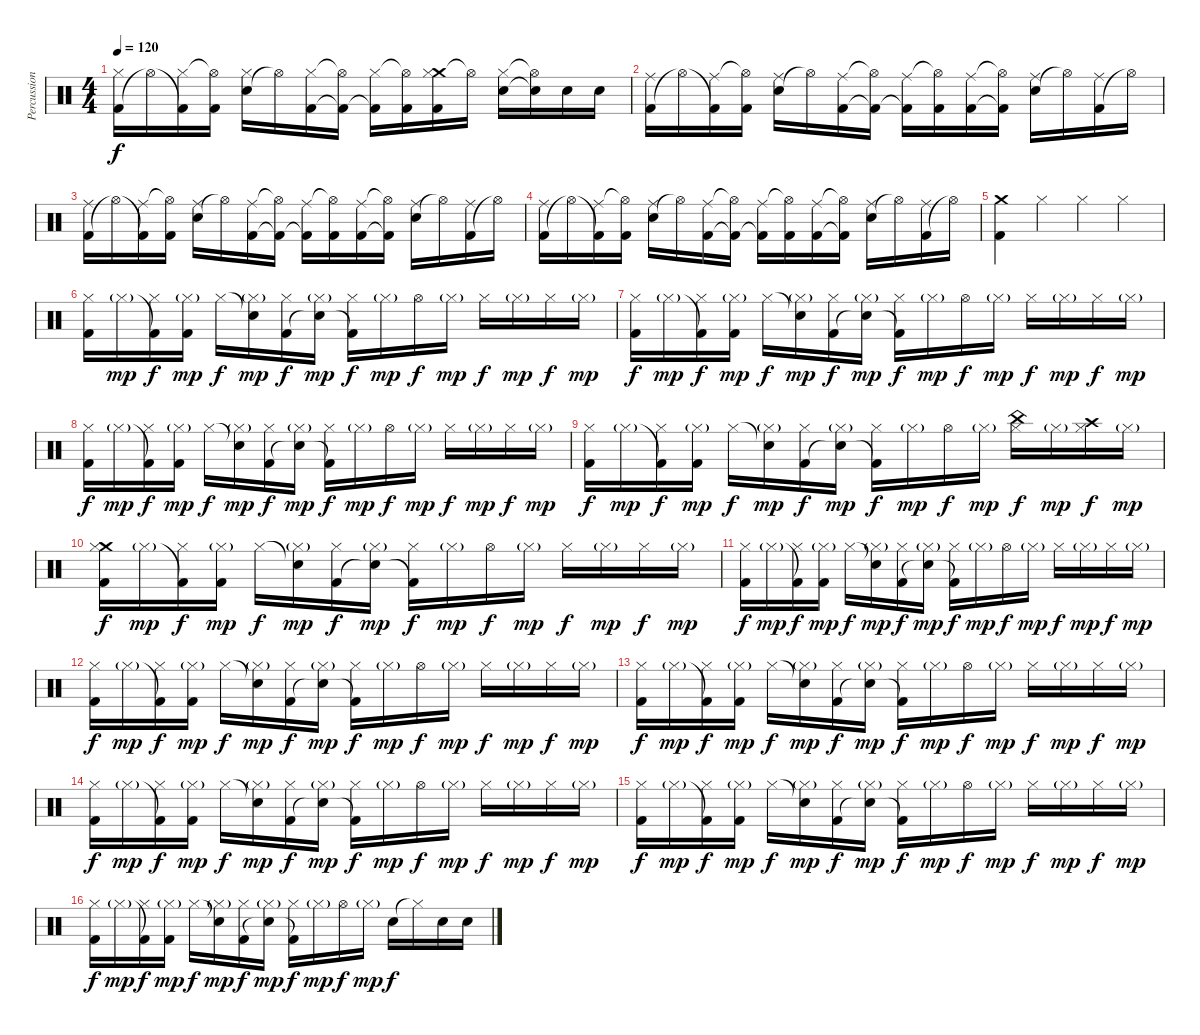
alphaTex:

\track ("Percussions" "Percussion") {instrument percussion}
\staff {score}
\articulation defaults
\ts (4 4)
\tempo 120
\clef neutral
\ks c
("Kick (hit) 2" "Hi-Hat (closed)").16{dy f} "Hi-Hat (open)"{t}.16 ("Kick (hit) 2"{t} "Hi-Hat (closed)").16 ("Kick (hit) 2" "Hi-Hat (open)"{t}).16 ("Electric Snare (hit)" "Hi-Hat (closed)").16 "Hi-Hat (open)"{t}.16 ("Kick (hit) 2" "Hi-Hat (closed)").16 ("Kick (hit) 2"{t} "Hi-Hat (open)"{t}).16 ("Kick (hit) 2"{t} "Hi-Hat (closed)").16 ("Kick (hit) 2" "Hi-Hat (open)"{t}).16 ("Crash medium (hit)" "Kick (hit) 2" "Hi-Hat (closed)").16 "Hi-Hat (open)"{t}.16 ("Electric Snare (hit)" "Hi-Hat (closed)").16 ("Electric Snare (hit)"{t} "Hi-Hat (open)"{t}).16 "Electric Snare (hit)".16 "Electric Snare (hit)".16 |
("Kick (hit) 2" "Ride (middle)").16 "Hi-Hat (open)"{t}.16 ("Kick (hit) 2"{t} "Ride (middle)").16 ("Kick (hit) 2" "Hi-Hat (open)"{t}).16 ("Electric Snare (hit)" "Ride (middle)").16 "Hi-Hat (open)"{t}.16 ("Kick (hit) 2" "Ride (middle)").16 ("Kick (hit) 2"{t} "Hi-Hat (open)"{t}).16 ("Kick (hit) 2"{t} "Ride (middle)").16 ("Kick (hit) 2" "Hi-Hat (open)"{t}).16 ("Kick (hit) 2" "Ride (middle)").16 ("Kick (hit) 2"{t} "Hi-Hat (open)"{t}).16 ("Electric Snare (hit)" "Ride (middle)").16 "Hi-Hat (open)"{t}.16 ("Kick (hit) 2" "Ride (middle)").16 "Hi-Hat (open)"{t}.16 |
("Kick (hit) 2" "Ride (middle)").16 "Hi-Hat (open)"{t}.16 ("Kick (hit) 2"{t} "Ride (middle)").16 ("Kick (hit) 2" "Hi-Hat (open)"{t}).16 ("Electric Snare (hit)" "Ride (middle)").16 "Hi-Hat (open)"{t}.16 ("Kick (hit) 2" "Ride (middle)").16 ("Kick (hit) 2"{t} "Hi-Hat (open)"{t}).16 ("Kick (hit) 2"{t} "Ride (middle)").16 ("Kick (hit) 2" "Hi-Hat (open)"{t}).16 ("Kick (hit) 2" "Ride (middle)").16 ("Kick (hit) 2"{t} "Hi-Hat (open)"{t}).16 ("Electric Snare (hit)" "Ride (middle)").16 "Hi-Hat (open)"{t}.16 ("Kick (hit) 2" "Ride (middle)").16 "Hi-Hat (open)"{t}.16 |
("Kick (hit) 2" "Ride (middle)").16 "Hi-Hat (open)"{t}.16 ("Kick (hit) 2"{t} "Ride (middle)").16 ("Kick (hit) 2" "Hi-Hat (open)"{t}).16 ("Electric Snare (hit)" "Ride (middle)").16 "Hi-Hat (open)"{t}.16 ("Kick (hit) 2" "Ride (middle)").16 ("Kick (hit) 2"{t} "Hi-Hat (open)"{t}).16 ("Kick (hit) 2"{t} "Ride (middle)").16 ("Kick (hit) 2" "Hi-Hat (open)"{t}).16 ("Kick (hit) 2" "Ride (middle)").16 ("Kick (hit) 2"{t} "Hi-Hat (open)"{t}).16 ("Electric Snare (hit)" "Ride (middle)").16 "Hi-Hat (open)"{t}.16 ("Kick (hit) 2" "Ride (middle)").16 "Hi-Hat (open)"{t}.16 |
("Crash medium (hit)" "Kick (hit) 2").4 "Hi-Hat (closed)".4 "Hi-Hat (closed)".4 "Hi-Hat (closed)".4 |
("Kick (hit) 2" "Hi-Hat (closed)").16 "Hi-Hat (closed)"{g}.16{dy mp} ("Kick (hit) 2"{t} "Hi-Hat (closed)").16{dy f} ("Kick (hit) 2" "Hi-Hat (closed)"{g}).16{dy mp} "Hi-Hat (closed)".16{dy f} ("Snare (hit)"{t} "Hi-Hat (closed)"{g}).16{dy mp} ("Kick (hit) 2" "Hi-Hat (closed)").16{dy f} ("Snare (hit)"{t} "Hi-Hat (closed)"{g}).16{dy mp} ("Kick (hit) 2"{t} "Hi-Hat (closed)").16{dy f} "Hi-Hat (closed)"{g}.16{dy mp} "Hi-Hat (open)".16{dy f} "Hi-Hat (closed)"{g}.16{dy mp} "Hi-Hat (closed)".16{dy f} "Hi-Hat (closed)"{g}.16{dy mp} "Hi-Hat (closed)".16{dy f} "Hi-Hat (closed)"{g}.16{dy mp} |
("Kick (hit) 2" "Hi-Hat (closed)").16{dy f} "Hi-Hat (closed)"{g}.16{dy mp} ("Kick (hit) 2"{t} "Hi-Hat (closed)").16{dy f} ("Kick (hit) 2" "Hi-Hat (closed)"{g}).16{dy mp} "Hi-Hat (closed)".16{dy f} ("Snare (hit)"{t} "Hi-Hat (closed)"{g}).16{dy mp} ("Kick (hit) 2" "Hi-Hat (closed)").16{dy f} ("Snare (hit)"{t} "Hi-Hat (closed)"{g}).16{dy mp} ("Kick (hit) 2"{t} "Hi-Hat (closed)").16{dy f} "Hi-Hat (closed)"{g}.16{dy mp} "Hi-Hat (open)".16{dy f} "Hi-Hat (closed)"{g}.16{dy mp} "Hi-Hat (closed)".16{dy f} "Hi-Hat (closed)"{g}.16{dy mp} "Hi-Hat (closed)".16{dy f} "Hi-Hat (closed)"{g}.16{dy mp} |
("Kick (hit) 2" "Hi-Hat (closed)").16{dy f} "Hi-Hat (closed)"{g}.16{dy mp} ("Kick (hit) 2"{t} "Hi-Hat (closed)").16{dy f} ("Kick (hit) 2" "Hi-Hat (closed)"{g}).16{dy mp} "Hi-Hat (closed)".16{dy f} ("Snare (hit)"{t} "Hi-Hat (closed)"{g}).16{dy mp} ("Kick (hit) 2" "Hi-Hat (closed)").16{dy f} ("Snare (hit)"{t} "Hi-Hat (closed)"{g}).16{dy mp} ("Kick (hit) 2"{t} "Hi-Hat (closed)").16{dy f} "Hi-Hat (closed)"{g}.16{dy mp} "Hi-Hat (open)".16{dy f} "Hi-Hat (closed)"{g}.16{dy mp} "Hi-Hat (closed)".16{dy f} "Hi-Hat (closed)"{g}.16{dy mp} "Hi-Hat (closed)".16{dy f} "Hi-Hat (closed)"{g}.16{dy mp} |
("Kick (hit) 2" "Hi-Hat (closed)").16{dy f} "Hi-Hat (closed)"{g}.16{dy mp} ("Kick (hit) 2"{t} "Hi-Hat (closed)").16{dy f} ("Kick (hit) 2" "Hi-Hat (closed)"{g}).16{dy mp} "Hi-Hat (closed)".16{dy f} ("Snare (hit)"{t} "Hi-Hat (closed)"{g}).16{dy mp} ("Kick (hit) 2" "Hi-Hat (closed)").16{dy f} ("Snare (hit)"{t} "Hi-Hat (closed)"{g}).16{dy mp} ("Kick (hit) 2"{t} "Hi-Hat (closed)").16{dy f} "Hi-Hat (closed)"{g}.16{dy mp} "Hi-Hat (open)".16{dy f} "Hi-Hat (closed)"{g}.16{dy mp} ("China (hit)" "Hi-Hat (closed)").16{dy f} "Hi-Hat (closed)"{g}.16{dy mp} ("Crash high (hit)" "Hi-Hat (closed)").16{dy f} "Hi-Hat (closed)"{g}.16{dy mp} |
("Crash medium (hit)" "Kick (hit) 2" "Hi-Hat (closed)").16{dy f} "Hi-Hat (closed)"{g}.16{dy mp} ("Kick (hit) 2"{t} "Hi-Hat (closed)").16{dy f} ("Kick (hit) 2" "Hi-Hat (closed)"{g}).16{dy mp} "Hi-Hat (closed)".16{dy f} ("Snare (hit)"{t} "Hi-Hat (closed)"{g}).16{dy mp} ("Kick (hit) 2" "Hi-Hat (closed)").16{dy f} ("Snare (hit)"{t} "Hi-Hat (closed)"{g}).16{dy mp} ("Kick (hit) 2"{t} "Hi-Hat (closed)").16{dy f} "Hi-Hat (closed)"{g}.16{dy mp} "Hi-Hat (open)".16{dy f} "Hi-Hat (closed)"{g}.16{dy mp} "Hi-Hat (closed)".16{dy f} "Hi-Hat (closed)"{g}.16{dy mp} "Hi-Hat (closed)".16{dy f} "Hi-Hat (closed)"{g}.16{dy mp} |
("Kick (hit) 2" "Hi-Hat (closed)").16{dy f} "Hi-Hat (closed)"{g}.16{dy mp} ("Kick (hit) 2"{t} "Hi-Hat (closed)").16{dy f} ("Kick (hit) 2" "Hi-Hat (closed)"{g}).16{dy mp} "Hi-Hat (closed)".16{dy f} ("Snare (hit)"{t} "Hi-Hat (closed)"{g}).16{dy mp} ("Kick (hit) 2" "Hi-Hat (closed)").16{dy f} ("Snare (hit)"{t} "Hi-Hat (closed)"{g}).16{dy mp} ("Kick (hit) 2"{t} "Hi-Hat (closed)").16{dy f} "Hi-Hat (closed)"{g}.16{dy mp} "Hi-Hat (open)".16{dy f} "Hi-Hat (closed)"{g}.16{dy mp} "Hi-Hat (closed)".16{dy f} "Hi-Hat (closed)"{g}.16{dy mp} "Hi-Hat (closed)".16{dy f} "Hi-Hat (closed)"{g}.16{dy mp} |
("Kick (hit) 2" "Hi-Hat (closed)").16{dy f} "Hi-Hat (closed)"{g}.16{dy mp} ("Kick (hit) 2"{t} "Hi-Hat (closed)").16{dy f} ("Kick (hit) 2" "Hi-Hat (closed)"{g}).16{dy mp} "Hi-Hat (closed)".16{dy f} ("Snare (hit)"{t} "Hi-Hat (closed)"{g}).16{dy mp} ("Kick (hit) 2" "Hi-Hat (closed)").16{dy f} ("Snare (hit)"{t} "Hi-Hat (closed)"{g}).16{dy mp} ("Kick (hit) 2"{t} "Hi-Hat (closed)").16{dy f} "Hi-Hat (closed)"{g}.16{dy mp} "Hi-Hat (open)".16{dy f} "Hi-Hat (closed)"{g}.16{dy mp} "Hi-Hat (closed)".16{dy f} "Hi-Hat (closed)"{g}.16{dy mp} "Hi-Hat (closed)".16{dy f} "Hi-Hat (closed)"{g}.16{dy mp} |
("Kick (hit) 2" "Hi-Hat (closed)").16{dy f} "Hi-Hat (closed)"{g}.16{dy mp} ("Kick (hit) 2"{t} "Hi-Hat (closed)").16{dy f} ("Kick (hit) 2" "Hi-Hat (closed)"{g}).16{dy mp} "Hi-Hat (closed)".16{dy f} ("Snare (hit)"{t} "Hi-Hat (closed)"{g}).16{dy mp} ("Kick (hit) 2" "Hi-Hat (closed)").16{dy f} ("Snare (hit)"{t} "Hi-Hat (closed)"{g}).16{dy mp} ("Kick (hit) 2"{t} "Hi-Hat (closed)").16{dy f} "Hi-Hat (closed)"{g}.16{dy mp} "Hi-Hat (open)".16{dy f} "Hi-Hat (closed)"{g}.16{dy mp} "Hi-Hat (closed)".16{dy f} "Hi-Hat (closed)"{g}.16{dy mp} "Hi-Hat (closed)".16{dy f} "Hi-Hat (closed)"{g}.16{dy mp} |
("Kick (hit) 2" "Hi-Hat (closed)").16{dy f} "Hi-Hat (closed)"{g}.16{dy mp} ("Kick (hit) 2"{t} "Hi-Hat (closed)").16{dy f} ("Kick (hit) 2" "Hi-Hat (closed)"{g}).16{dy mp} "Hi-Hat (closed)".16{dy f} ("Snare (hit)"{t} "Hi-Hat (closed)"{g}).16{dy mp} ("Kick (hit) 2" "Hi-Hat (closed)").16{dy f} ("Snare (hit)"{t} "Hi-Hat (closed)"{g}).16{dy mp} ("Kick (hit) 2"{t} "Hi-Hat (closed)").16{dy f} "Hi-Hat (closed)"{g}.16{dy mp} "Hi-Hat (open)".16{dy f} "Hi-Hat (closed)"{g}.16{dy mp} "Hi-Hat (closed)".16{dy f} "Hi-Hat (closed)"{g}.16{dy mp} "Hi-Hat (closed)".16{dy f} "Hi-Hat (closed)"{g}.16{dy mp} |
("Kick (hit) 2" "Hi-Hat (closed)").16{dy f} "Hi-Hat (closed)"{g}.16{dy mp} ("Kick (hit) 2"{t} "Hi-Hat (closed)").16{dy f} ("Kick (hit) 2" "Hi-Hat (closed)"{g}).16{dy mp} "Hi-Hat (closed)".16{dy f} ("Snare (hit)"{t} "Hi-Hat (closed)"{g}).16{dy mp} ("Kick (hit) 2" "Hi-Hat (closed)").16{dy f} ("Snare (hit)"{t} "Hi-Hat (closed)"{g}).16{dy mp} ("Kick (hit) 2"{t} "Hi-Hat (closed)").16{dy f} "Hi-Hat (closed)"{g}.16{dy mp} "Hi-Hat (open)".16{dy f} "Hi-Hat (closed)"{g}.16{dy mp} "Hi-Hat (closed)".16{dy f} "Hi-Hat (closed)"{g}.16{dy mp} "Hi-Hat (closed)".16{dy f} "Hi-Hat (closed)"{g}.16{dy mp} |
("Kick (hit) 2" "Hi-Hat (closed)").16{dy f} "Hi-Hat (closed)"{g}.16{dy mp} ("Kick (hit) 2"{t} "Hi-Hat (closed)").16{dy f} ("Kick (hit) 2" "Hi-Hat (closed)"{g}).16{dy mp} "Hi-Hat (closed)".16{dy f} ("Snare (hit)"{t} "Hi-Hat (closed)"{g}).16{dy mp} ("Kick (hit) 2" "Hi-Hat (closed)").16{dy f} ("Snare (hit)"{t} "Hi-Hat (closed)"{g}).16{dy mp} ("Kick (hit) 2"{t} "Hi-Hat (closed)").16{dy f} "Hi-Hat (closed)"{g}.16{dy mp} "Hi-Hat (open)".16{dy f} "Hi-Hat (closed)"{g}.16{dy mp} "Electric Snare (hit)".16{dy f} "Hi-Hat (closed)"{t}.16 "Electric Snare (hit)".16 "Electric Snare (hit)".16
